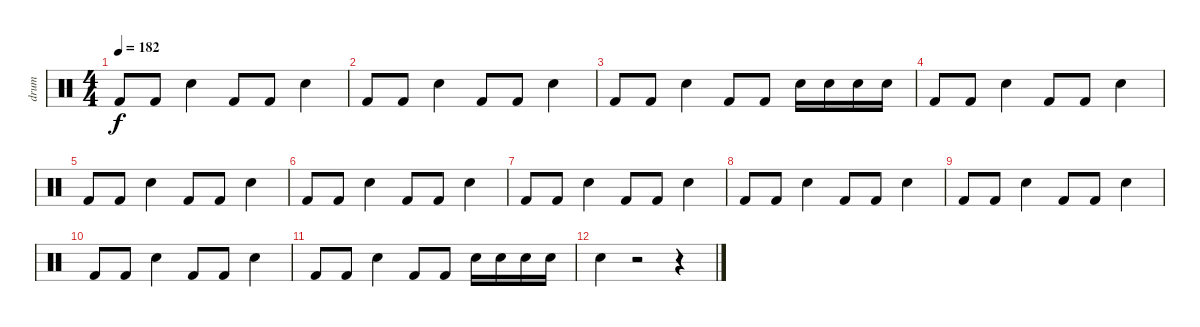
\track ("drum" "drum") {instrument percussion}
\staff {score}
\articulation defaults
\ts (4 4)
\tempo 182
\clef neutral
\ks c "Kick (hit) 2".8{dy f} "Kick (hit) 2".8 "Electric Snare (hit)".4 "Kick (hit) 2".8 "Kick (hit) 2".8 "Electric Snare (hit)".4
|
"Kick (hit) 2".8 "Kick (hit) 2".8 "Electric Snare (hit)".4 "Kick (hit) 2".8 "Kick (hit) 2".8 "Electric Snare (hit)".4 |
"Kick (hit) 2".8 "Kick (hit) 2".8 "Electric Snare (hit)".4 "Kick (hit) 2".8 "Kick (hit) 2".8 "Electric Snare (hit)".16 "Electric Snare (hit)".16 "Electric Snare (hit)".16 "Electric Snare (hit)".16 |
"Kick (hit) 2".8 "Kick (hit) 2".8 "Electric Snare (hit)".4 "Kick (hit) 2".8 "Kick (hit) 2".8 "Electric Snare (hit)".4 |
"Kick (hit) 2".8 "Kick (hit) 2".8 "Electric Snare (hit)".4 "Kick (hit) 2".8 "Kick (hit) 2".8 "Electric Snare (hit)".4 |
"Kick (hit) 2".8 "Kick (hit) 2".8 "Electric Snare (hit)".4 "Kick (hit) 2".8 "Kick (hit) 2".8 "Electric Snare (hit)".4 |
"Kick (hit) 2".8 "Kick (hit) 2".8 "Electric Snare (hit)".4 "Kick (hit) 2".8 "Kick (hit) 2".8 "Electric Snare (hit)".4 |
"Kick (hit) 2".8 "Kick (hit) 2".8 "Electric Snare (hit)".4 "Kick (hit) 2".8 "Kick (hit) 2".8 "Electric Snare (hit)".4 |
"Kick (hit) 2".8 "Kick (hit) 2".8 "Electric Snare (hit)".4 "Kick (hit) 2".8 "Kick (hit) 2".8 "Electric Snare (hit)".4 |
"Kick (hit) 2".8 "Kick (hit) 2".8 "Electric Snare (hit)".4 "Kick (hit) 2".8 "Kick (hit) 2".8 "Electric Snare (hit)".4 |
"Kick (hit) 2".8 "Kick (hit) 2".8 "Electric Snare (hit)".4 "Kick (hit) 2".8 "Kick (hit) 2".8 "Electric Snare (hit)".16 "Electric Snare (hit)".16 "Electric Snare (hit)".16 "Electric Snare (hit)".16 |
"Electric Snare (hit)".4 r.2 r.4
